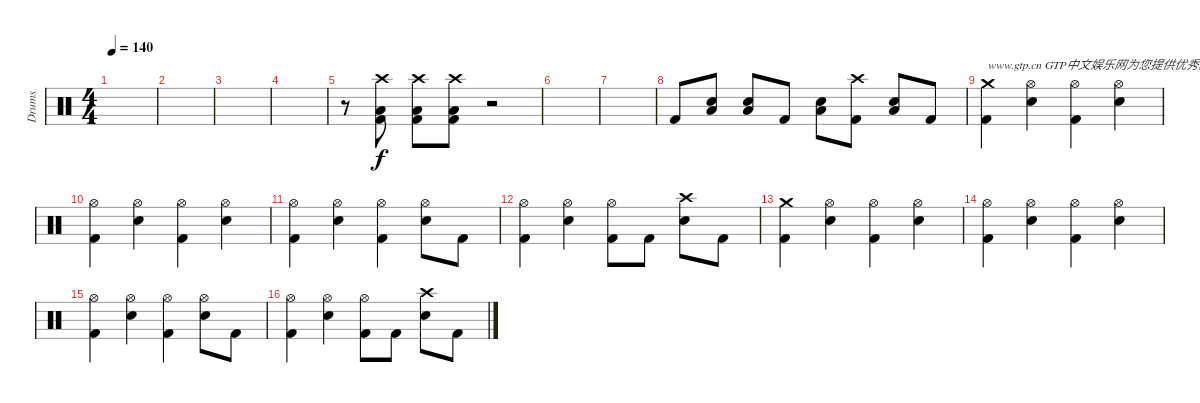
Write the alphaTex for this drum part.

\track ("Drums" "Drums") {instrument percussion}
\staff {score}
\articulation defaults
\ts (4 4)
\tempo 140
\clef neutral
\ks c
|
|
|
|
r.8 ("Crash high (hit)" "Low Floor Tom (hit)" "Kick (hit) 2").8 ("Crash high (hit)" "Low Floor Tom (hit)" "Kick (hit) 2").8 ("Crash high (hit)" "Low Floor Tom (hit)" "Kick (hit) 2").8 r.2 |
|
|
"Kick (hit) 2".8 ("Low Floor Tom (hit)" "Electric Snare (hit)").8 ("Low Floor Tom (hit)" "Electric Snare (hit)").8 "Kick (hit) 2".8 ("Low Floor Tom (hit)" "Electric Snare (hit)").8 ("Crash high (hit)" "Kick (hit) 2").8 ("Low Floor Tom (hit)" "Electric Snare (hit)").8 "Kick (hit) 2".8 |
("Crash medium (hit)" "Kick (hit) 2").4{txt "www.gtp.cn GTP中文娱乐网为您提供优秀的谱子"} ("Hi-Hat (open)" "Electric Snare (hit)").4 ("Hi-Hat (open)" "Kick (hit) 2").4 ("Hi-Hat (open)" "Electric Snare (hit)").4 |
("Hi-Hat (open)" "Kick (hit) 2").4 ("Hi-Hat (open)" "Electric Snare (hit)").4 ("Hi-Hat (open)" "Kick (hit) 2").4 ("Hi-Hat (open)" "Electric Snare (hit)").4 |
("Hi-Hat (open)" "Kick (hit) 2").4 ("Hi-Hat (open)" "Electric Snare (hit)").4 ("Hi-Hat (open)" "Kick (hit) 2").4 ("Hi-Hat (open)" "Electric Snare (hit)").8 "Kick (hit) 2".8 |
("Hi-Hat (open)" "Kick (hit) 2").4 ("Hi-Hat (open)" "Electric Snare (hit)").4 ("Hi-Hat (open)" "Kick (hit) 2").8 "Kick (hit) 2".8 ("Crash high (hit)" "Electric Snare (hit)").8 "Kick (hit) 2".8 |
("Crash medium (hit)" "Kick (hit) 2").4 ("Hi-Hat (open)" "Electric Snare (hit)").4 ("Hi-Hat (open)" "Kick (hit) 2").4 ("Hi-Hat (open)" "Electric Snare (hit)").4 |
("Hi-Hat (open)" "Kick (hit) 2").4 ("Hi-Hat (open)" "Electric Snare (hit)").4 ("Hi-Hat (open)" "Kick (hit) 2").4 ("Hi-Hat (open)" "Electric Snare (hit)").4 |
("Hi-Hat (open)" "Kick (hit) 2").4 ("Hi-Hat (open)" "Electric Snare (hit)").4 ("Hi-Hat (open)" "Kick (hit) 2").4 ("Hi-Hat (open)" "Electric Snare (hit)").8 "Kick (hit) 2".8 |
("Hi-Hat (open)" "Kick (hit) 2").4 ("Hi-Hat (open)" "Electric Snare (hit)").4 ("Hi-Hat (open)" "Kick (hit) 2").8 "Kick (hit) 2".8 ("Crash high (hit)" "Electric Snare (hit)").8 "Kick (hit) 2".8
